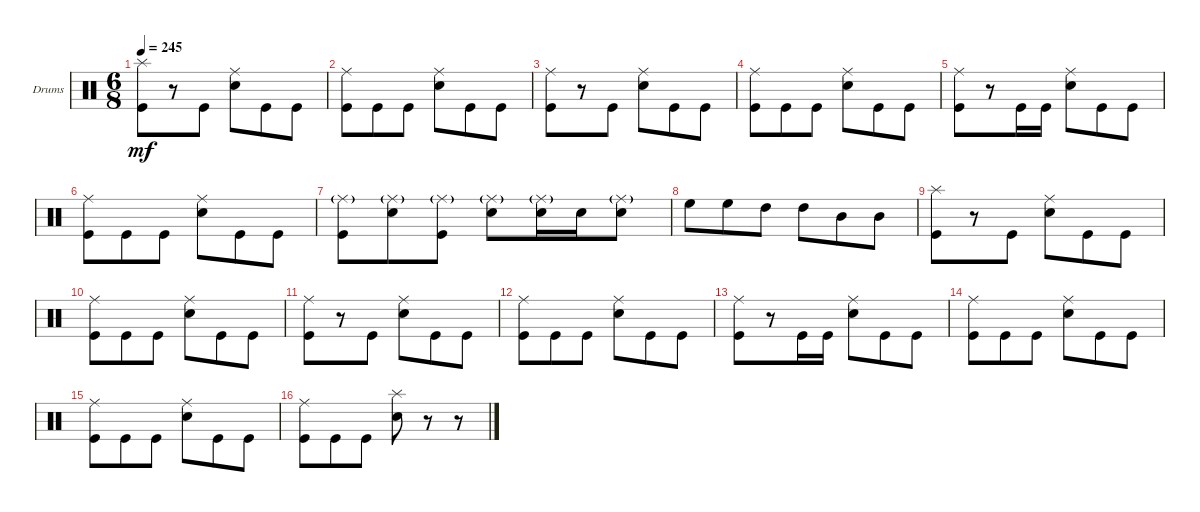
\bracketExtendMode groupsimilarinstruments
\firstSystemTrackNameOrientation horizontal
\otherSystemsTrackNameOrientation horizontal
\track ("Drumkit" "Drums") {instrument percussion}
\staff {score}
\articulation defaults
\ts (6 8)
\tempo 245
\clef neutral
\ks c
("Kick (hit)" "Splash (hit)").8{dy mf} r.8 "Kick (hit)".8 ("Snare (hit) 2" "Ride (middle)").8 "Kick (hit)".8 "Kick (hit)".8 |
("Kick (hit)" "Ride (middle)").8 "Kick (hit)".8 "Kick (hit)".8 ("Snare (hit) 2" "Ride (middle)").8 "Kick (hit)".8 "Kick (hit)".8 |
("Kick (hit)" "Ride (middle)").8 r.8 "Kick (hit)".8 ("Snare (hit) 2" "Ride (middle)").8 "Kick (hit)".8 "Kick (hit)".8 |
("Kick (hit)" "Ride (middle)").8 "Kick (hit)".8 "Kick (hit)".8 ("Snare (hit) 2" "Ride (middle)").8 "Kick (hit)".8 "Kick (hit)".8 |
("Kick (hit)" "Ride (middle)").8 r.8 "Kick (hit)".16 "Kick (hit)".16 ("Snare (hit) 2" "Ride (middle)").8 "Kick (hit)".8 "Kick (hit)".8 |
("Kick (hit)" "Ride (middle)").8 "Kick (hit)".8 "Kick (hit)".8 ("Snare (hit) 2" "Ride (middle)").8 "Kick (hit)".8 "Kick (hit)".8 |
("Kick (hit)" "Ride (middle)"{g}).8 ("Snare (hit) 2" "Ride (middle)"{g}).8 ("Kick (hit)" "Ride (middle)"{g}).8 ("Snare (hit) 2" "Ride (middle)"{g}).8 ("Snare (hit) 2" "Ride (middle)"{g}).16 "Snare (hit) 2".16 ("Snare (hit) 2" "Ride (middle)"{g}).8 |
"High Floor Tom (hit)".8 "High Floor Tom (hit)".8 "High Tom (hit)".8 "High Tom (hit)".8 "Mid Tom (hit)".8 "Mid Tom (hit)".8 |
("Kick (hit)" "Splash (hit)").8 r.8 "Kick (hit)".8 ("Snare (hit) 2" "Ride (middle)").8 "Kick (hit)".8 "Kick (hit)".8 |
("Kick (hit)" "Ride (middle)").8 "Kick (hit)".8 "Kick (hit)".8 ("Snare (hit) 2" "Ride (middle)").8 "Kick (hit)".8 "Kick (hit)".8 |
("Kick (hit)" "Ride (middle)").8 r.8 "Kick (hit)".8 ("Snare (hit) 2" "Ride (middle)").8 "Kick (hit)".8 "Kick (hit)".8 |
("Kick (hit)" "Ride (middle)").8 "Kick (hit)".8 "Kick (hit)".8 ("Snare (hit) 2" "Ride (middle)").8 "Kick (hit)".8 "Kick (hit)".8 |
("Kick (hit)" "Ride (middle)").8 r.8 "Kick (hit)".16 "Kick (hit)".16 ("Snare (hit) 2" "Ride (middle)").8 "Kick (hit)".8 "Kick (hit)".8 |
("Kick (hit)" "Ride (middle)").8 "Kick (hit)".8 "Kick (hit)".8 ("Snare (hit) 2" "Ride (middle)").8 "Kick (hit)".8 "Kick (hit)".8 |
("Kick (hit)" "Ride (middle)").8 "Kick (hit)".8 "Kick (hit)".8 ("Snare (hit) 2" "Ride (middle)").8 "Kick (hit)".8 "Kick (hit)".8 |
("Kick (hit)" "Ride (middle)").8 "Kick (hit)".8 "Kick (hit)".8 ("Snare (hit) 2" "Splash (hit)").8 r.8 r.8
